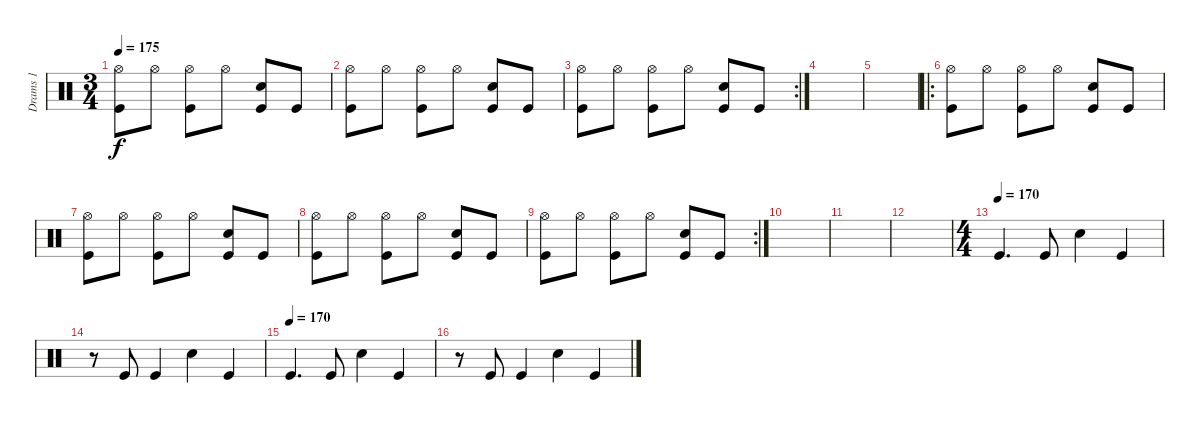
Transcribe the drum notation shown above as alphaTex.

\track ("Drams 1" "Drams 1") {instrument percussion}
\staff {score}
\articulation defaults
\ts (3 4)
\tempo 175
\clef neutral
\ks c
("Hi-Hat (open)" "Kick (hit)").8{dy f} "Hi-Hat (open)".8 ("Hi-Hat (open)" "Kick (hit)").8 "Hi-Hat (open)".8 ("Snare (hit) 2" "Kick (hit)").8 "Kick (hit)".8 |
("Hi-Hat (open)" "Kick (hit)").8 "Hi-Hat (open)".8 ("Hi-Hat (open)" "Kick (hit)").8 "Hi-Hat (open)".8 ("Snare (hit) 2" "Kick (hit)").8 "Kick (hit)".8 |
\rc 2
("Hi-Hat (open)" "Kick (hit)").8 "Hi-Hat (open)".8 ("Hi-Hat (open)" "Kick (hit)").8 "Hi-Hat (open)".8 ("Snare (hit) 2" "Kick (hit)").8 "Kick (hit)".8 |
|
|
\ro
("Hi-Hat (open)" "Kick (hit)").8 "Hi-Hat (open)".8 ("Hi-Hat (open)" "Kick (hit)").8 "Hi-Hat (open)".8 ("Snare (hit) 2" "Kick (hit)").8 "Kick (hit)".8 |
("Hi-Hat (open)" "Kick (hit)").8 "Hi-Hat (open)".8 ("Hi-Hat (open)" "Kick (hit)").8 "Hi-Hat (open)".8 ("Snare (hit) 2" "Kick (hit)").8 "Kick (hit)".8 |
("Hi-Hat (open)" "Kick (hit)").8 "Hi-Hat (open)".8 ("Hi-Hat (open)" "Kick (hit)").8 "Hi-Hat (open)".8 ("Snare (hit) 2" "Kick (hit)").8 "Kick (hit)".8 |
\rc 2
("Hi-Hat (open)" "Kick (hit)").8 "Hi-Hat (open)".8 ("Hi-Hat (open)" "Kick (hit)").8 "Hi-Hat (open)".8 ("Snare (hit) 2" "Kick (hit)").8 "Kick (hit)".8 |
|
|
|
\ts (4 4)
\tempo (170)
"Kick (hit)".4{d} "Kick (hit)".8 "Snare (hit) 2".4 "Kick (hit)".4 |
r.8 "Kick (hit)".8 "Kick (hit)".4 "Snare (hit) 2".4 "Kick (hit)".4 |
\tempo (170)
"Kick (hit)".4{d} "Kick (hit)".8 "Snare (hit) 2".4 "Kick (hit)".4 |
r.8 "Kick (hit)".8 "Kick (hit)".4 "Snare (hit) 2".4 "Kick (hit)".4
